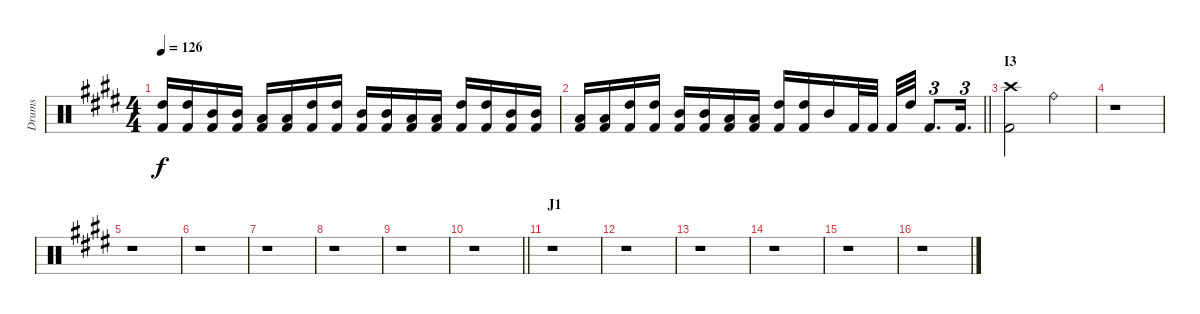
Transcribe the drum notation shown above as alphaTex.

\track ("Drums" "Drums") {instrument percussion}
\staff {score}
\articulation defaults
\ts (4 4)
\tempo 126
\clef neutral
\ks c#minor
("High Tom (hit)" "Kick (hit) 2").16{dy f} ("High Tom (hit)" "Kick (hit) 2").16 ("Mid Tom (hit)" "Kick (hit) 2").16 ("Mid Tom (hit)" "Kick (hit) 2").16 ("Low Tom (hit)" "Kick (hit) 2").16 ("Low Tom (hit)" "Kick (hit) 2").16 ("High Tom (hit)" "Kick (hit) 2").16 ("High Tom (hit)" "Kick (hit) 2").16 ("Mid Tom (hit)" "Kick (hit) 2").16 ("Mid Tom (hit)" "Kick (hit) 2").16 ("Low Tom (hit)" "Kick (hit) 2").16 ("Low Tom (hit)" "Kick (hit) 2").16 ("High Tom (hit)" "Kick (hit) 2").16 ("High Tom (hit)" "Kick (hit) 2").16 ("Mid Tom (hit)" "Kick (hit) 2").16 ("Mid Tom (hit)" "Kick (hit) 2").16 |
\barLineRight lightlight
("Low Tom (hit)" "Kick (hit) 2").16 ("Low Tom (hit)" "Kick (hit) 2").16 ("High Tom (hit)" "Kick (hit) 2").16 ("High Tom (hit)" "Kick (hit) 2").16 ("Mid Tom (hit)" "Kick (hit) 2").16 ("Mid Tom (hit)" "Kick (hit) 2").16 ("Low Tom (hit)" "Kick (hit) 2").16 ("Low Tom (hit)" "Kick (hit) 2").16 ("High Tom (hit)" "Kick (hit) 2").16 ("High Tom (hit)" "Kick (hit) 2").16 "Mid Tom (hit)".16 "Kick (hit) 2".32 "Kick (hit) 2".32 "Kick (hit) 2".32 "High Tom (hit)".32 "Kick (hit) 2".8{d tu (3 2)} "Kick (hit) 2".16{d tu (3 2)} |
\section ("" "I3")
("Crash high (hit)" "Kick (hit) 2").2 "Ride (bell)".2 |
r.1 |
r.1 |
r.1 |
r.1 |
r.1 |
r.1 |
\barLineRight lightlight
r.1 |
\section ("" "J1")
r.1 |
r.1 |
r.1 |
r.1 |
r.1 |
r.1
